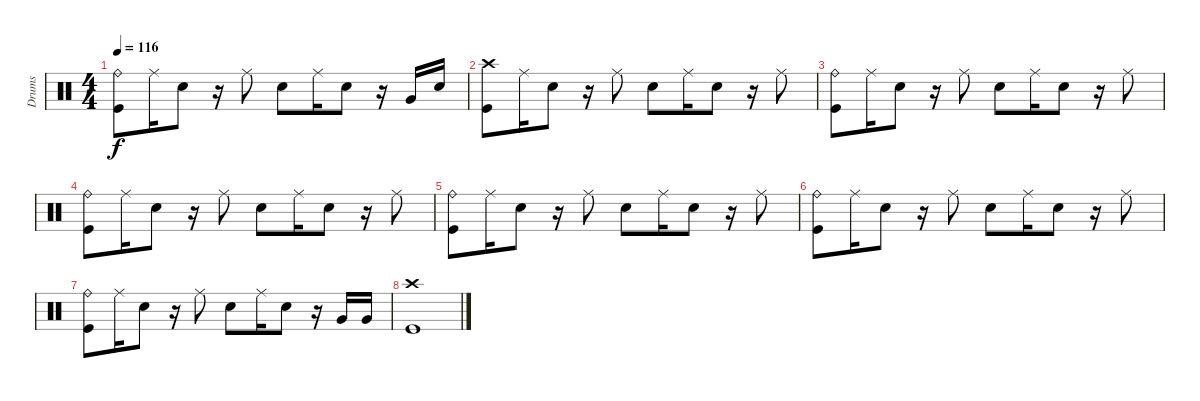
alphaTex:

\track ("Drums" "Drums") {instrument percussion}
\staff {score}
\articulation defaults
\ts (4 4)
\tempo 116
\clef neutral
\ks c
("Ride (bell)" "Kick (hit)").8{dy f} "Ride (middle)".16 "Snare (hit) 2".8 r.16 "Ride (middle)".8 "Snare (hit) 2".8 "Ride (middle)".16 "Snare (hit) 2".8 r.16 "Very Low Tom (hit)".16 "Snare (hit) 2".16 |
("Crash high (hit)" "Kick (hit)").8 "Ride (middle)".16 "Snare (hit) 2".8 r.16 "Ride (middle)".8 "Snare (hit) 2".8 "Ride (middle)".16 "Snare (hit) 2".8 r.16 "Ride (middle)".8 |
("Ride (bell)" "Kick (hit)").8 "Ride (middle)".16 "Snare (hit) 2".8 r.16 "Ride (middle)".8 "Snare (hit) 2".8 "Ride (middle)".16 "Snare (hit) 2".8 r.16 "Ride (middle)".8 |
("Ride (bell)" "Kick (hit)").8 "Ride (middle)".16 "Snare (hit) 2".8 r.16 "Ride (middle)".8 "Snare (hit) 2".8 "Ride (middle)".16 "Snare (hit) 2".8 r.16 "Ride (middle)".8 |
("Ride (bell)" "Kick (hit)").8 "Ride (middle)".16 "Snare (hit) 2".8 r.16 "Ride (middle)".8 "Snare (hit) 2".8 "Ride (middle)".16 "Snare (hit) 2".8 r.16 "Ride (middle)".8 |
("Ride (bell)" "Kick (hit)").8 "Ride (middle)".16 "Snare (hit) 2".8 r.16 "Ride (middle)".8 "Snare (hit) 2".8 "Ride (middle)".16 "Snare (hit) 2".8 r.16 "Ride (middle)".8 |
("Ride (bell)" "Kick (hit)").8 "Ride (middle)".16 "Snare (hit) 2".8 r.16 "Ride (middle)".8 "Snare (hit) 2".8 "Ride (middle)".16 "Snare (hit) 2".8 r.16 "Very Low Tom (hit)".16 "Very Low Tom (hit)".16 |
("Crash high (hit)" "Kick (hit)").1
